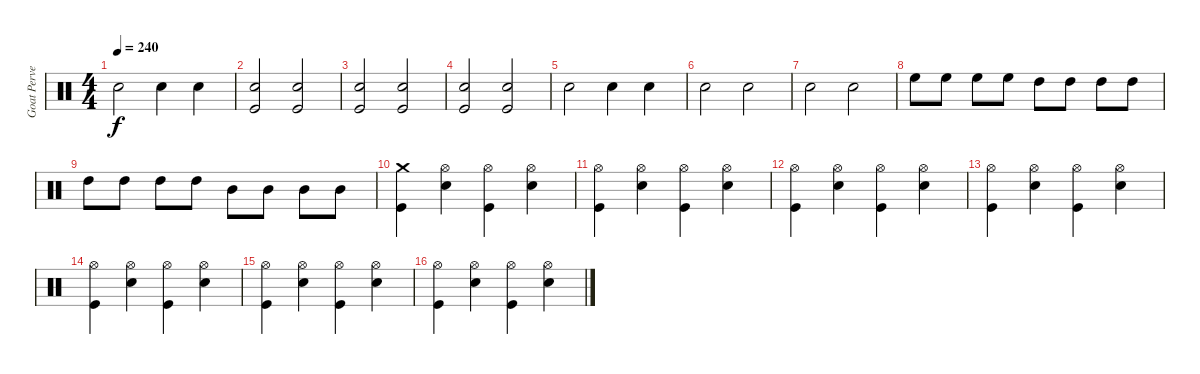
\track ("Goat Pervertor" "Goat Perve") {instrument percussion}
\staff {score}
\articulation defaults
\ts (4 4)
\tempo 240
\clef neutral
\ks c "Snare (hit) 2".2{dy f} "Snare (hit) 2".4 "Snare (hit) 2".4
|
("Snare (hit) 2" "Kick (hit)").2 ("Snare (hit) 2" "Kick (hit)").2 |
("Snare (hit) 2" "Kick (hit)").2 ("Snare (hit) 2" "Kick (hit)").2 |
("Snare (hit) 2" "Kick (hit)").2 ("Snare (hit) 2" "Kick (hit)").2 |
"Snare (hit) 2".2 "Snare (hit) 2".4 "Snare (hit) 2".4 |
"Snare (hit) 2".2 "Snare (hit) 2".2 |
"Snare (hit) 2".2 "Snare (hit) 2".2 |
"High Floor Tom (hit)".8 "High Floor Tom (hit)".8 "High Floor Tom (hit)".8 "High Floor Tom (hit)".8 "High Tom (hit)".8 "High Tom (hit)".8 "High Tom (hit)".8 "High Tom (hit)".8 |
"High Tom (hit)".8 "High Tom (hit)".8 "High Tom (hit)".8 "High Tom (hit)".8 "Mid Tom (hit)".8 "Mid Tom (hit)".8 "Mid Tom (hit)".8 "Mid Tom (hit)".8 |
("Kick (hit)" "Crash medium (hit)").4 ("Snare (hit) 2" "Hi-Hat (open)").4 ("Kick (hit)" "Hi-Hat (open)").4 ("Snare (hit) 2" "Hi-Hat (open)").4 |
("Kick (hit)" "Hi-Hat (open)").4 ("Snare (hit) 2" "Hi-Hat (open)").4 ("Kick (hit)" "Hi-Hat (open)").4 ("Snare (hit) 2" "Hi-Hat (open)").4 |
("Kick (hit)" "Hi-Hat (open)").4 ("Snare (hit) 2" "Hi-Hat (open)").4 ("Kick (hit)" "Hi-Hat (open)").4 ("Snare (hit) 2" "Hi-Hat (open)").4 |
("Kick (hit)" "Hi-Hat (open)").4 ("Snare (hit) 2" "Hi-Hat (open)").4 ("Kick (hit)" "Hi-Hat (open)").4 ("Snare (hit) 2" "Hi-Hat (open)").4 |
("Kick (hit)" "Hi-Hat (open)").4 ("Snare (hit) 2" "Hi-Hat (open)").4 ("Kick (hit)" "Hi-Hat (open)").4 ("Snare (hit) 2" "Hi-Hat (open)").4 |
("Kick (hit)" "Hi-Hat (open)").4 ("Snare (hit) 2" "Hi-Hat (open)").4 ("Kick (hit)" "Hi-Hat (open)").4 ("Snare (hit) 2" "Hi-Hat (open)").4 |
("Kick (hit)" "Hi-Hat (open)").4 ("Snare (hit) 2" "Hi-Hat (open)").4 ("Kick (hit)" "Hi-Hat (open)").4 ("Snare (hit) 2" "Hi-Hat (open)").4
